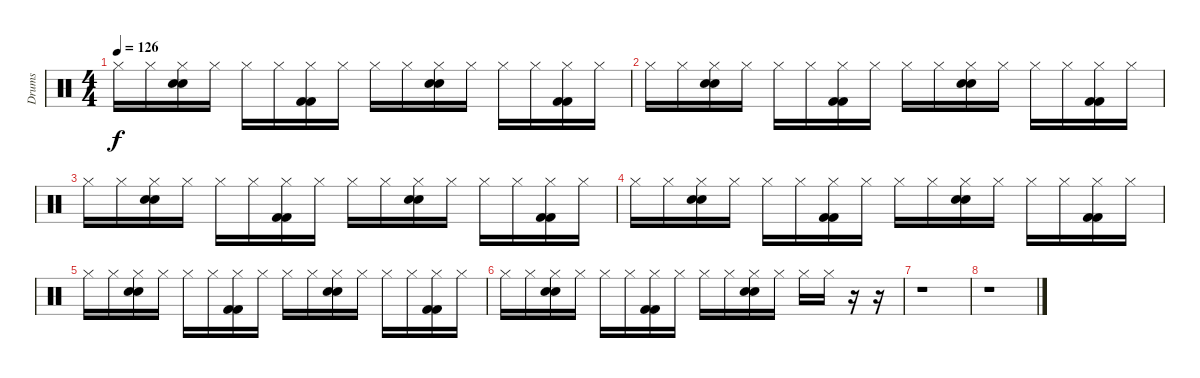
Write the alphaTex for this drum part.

\track ("Drums" "Drums") {instrument percussion}
\staff {score}
\articulation defaults
\ts (4 4)
\tempo 126
\clef neutral
\ks c "Hi-Hat (closed)".16{dy f} "Hi-Hat (closed)".16
("Electric Snare (hit)" "Hi-Hat (closed)" "Electric Snare (hit)").16 "Hi-Hat (closed)".16 "Hi-Hat (closed)".16 "Hi-Hat (closed)".16 ("Kick (hit) 2" "Hi-Hat (closed)" "Kick (hit) 2").16 "Hi-Hat (closed)".16 "Hi-Hat (closed)".16 "Hi-Hat (closed)".16 ("Electric Snare (hit)" "Hi-Hat (closed)" "Electric Snare (hit)").16 "Hi-Hat (closed)".16 "Hi-Hat (closed)".16 "Hi-Hat (closed)".16 ("Kick (hit) 2" "Hi-Hat (closed)" "Kick (hit) 2").16 "Hi-Hat (closed)".16 |
"Hi-Hat (closed)".16 "Hi-Hat (closed)".16 ("Electric Snare (hit)" "Hi-Hat (closed)" "Electric Snare (hit)").16 "Hi-Hat (closed)".16 "Hi-Hat (closed)".16 "Hi-Hat (closed)".16 ("Kick (hit) 2" "Hi-Hat (closed)" "Kick (hit) 2").16 "Hi-Hat (closed)".16 "Hi-Hat (closed)".16 "Hi-Hat (closed)".16 ("Electric Snare (hit)" "Hi-Hat (closed)" "Electric Snare (hit)").16 "Hi-Hat (closed)".16 "Hi-Hat (closed)".16 "Hi-Hat (closed)".16 ("Kick (hit) 2" "Hi-Hat (closed)" "Kick (hit) 2").16 "Hi-Hat (closed)".16 |
"Hi-Hat (closed)".16 "Hi-Hat (closed)".16 ("Electric Snare (hit)" "Hi-Hat (closed)" "Electric Snare (hit)").16 "Hi-Hat (closed)".16 "Hi-Hat (closed)".16 "Hi-Hat (closed)".16 ("Kick (hit) 2" "Hi-Hat (closed)" "Kick (hit) 2").16 "Hi-Hat (closed)".16 "Hi-Hat (closed)".16 "Hi-Hat (closed)".16 ("Electric Snare (hit)" "Hi-Hat (closed)" "Electric Snare (hit)").16 "Hi-Hat (closed)".16 "Hi-Hat (closed)".16 "Hi-Hat (closed)".16 ("Kick (hit) 2" "Hi-Hat (closed)" "Kick (hit) 2").16 "Hi-Hat (closed)".16 |
"Hi-Hat (closed)".16 "Hi-Hat (closed)".16 ("Electric Snare (hit)" "Hi-Hat (closed)" "Electric Snare (hit)").16 "Hi-Hat (closed)".16 "Hi-Hat (closed)".16 "Hi-Hat (closed)".16 ("Kick (hit) 2" "Hi-Hat (closed)" "Kick (hit) 2").16 "Hi-Hat (closed)".16 "Hi-Hat (closed)".16 "Hi-Hat (closed)".16 ("Electric Snare (hit)" "Hi-Hat (closed)" "Electric Snare (hit)").16 "Hi-Hat (closed)".16 "Hi-Hat (closed)".16 "Hi-Hat (closed)".16 ("Kick (hit) 2" "Hi-Hat (closed)" "Kick (hit) 2").16 "Hi-Hat (closed)".16 |
"Hi-Hat (closed)".16 "Hi-Hat (closed)".16 ("Electric Snare (hit)" "Hi-Hat (closed)" "Electric Snare (hit)").16 "Hi-Hat (closed)".16 "Hi-Hat (closed)".16 "Hi-Hat (closed)".16 ("Kick (hit) 2" "Hi-Hat (closed)" "Kick (hit) 2").16 "Hi-Hat (closed)".16 "Hi-Hat (closed)".16 "Hi-Hat (closed)".16 ("Electric Snare (hit)" "Hi-Hat (closed)" "Electric Snare (hit)").16 "Hi-Hat (closed)".16 "Hi-Hat (closed)".16 "Hi-Hat (closed)".16 ("Kick (hit) 2" "Hi-Hat (closed)" "Kick (hit) 2").16 "Hi-Hat (closed)".16 |
"Hi-Hat (closed)".16 "Hi-Hat (closed)".16 ("Electric Snare (hit)" "Hi-Hat (closed)" "Electric Snare (hit)").16 "Hi-Hat (closed)".16 "Hi-Hat (closed)".16 "Hi-Hat (closed)".16 ("Kick (hit) 2" "Hi-Hat (closed)" "Kick (hit) 2").16 "Hi-Hat (closed)".16 "Hi-Hat (closed)".16 "Hi-Hat (closed)".16 ("Electric Snare (hit)" "Hi-Hat (closed)" "Electric Snare (hit)").16 "Hi-Hat (closed)".16 "Hi-Hat (closed)".16 "Hi-Hat (closed)".16 r.16 r.16 |
r.1 |
r.1
